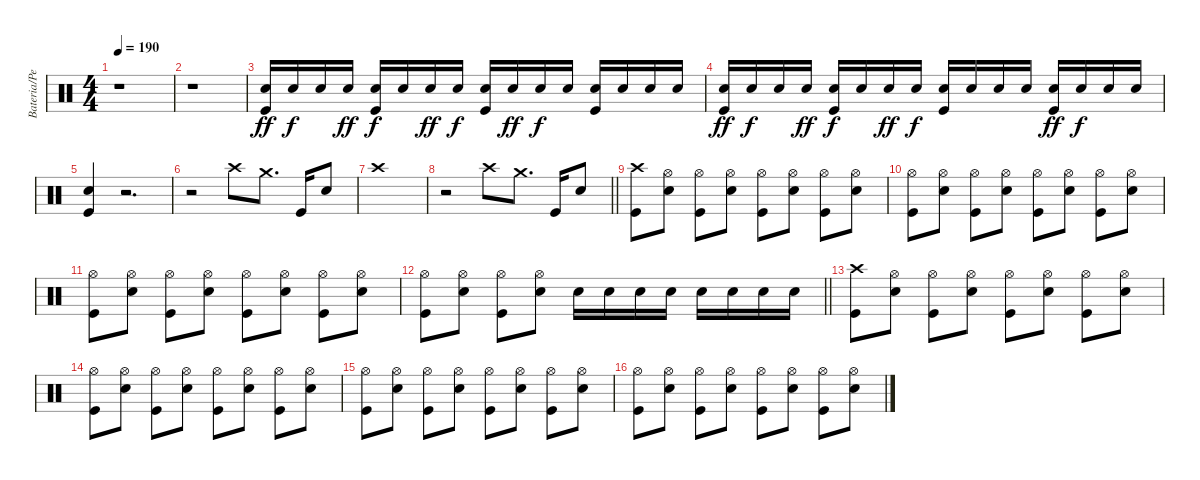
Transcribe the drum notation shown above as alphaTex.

\track ("Bateria/Percussion" "Bateria/Pe") {instrument percussion}
\staff {score}
\articulation defaults
\ts (4 4)
\section ("" "")
\tempo 190
\clef neutral
\ks c
r.1{dy ff} |
r.1 |
("Snare (hit) 2" "Kick (hit)").16 "Snare (hit) 2".16{dy f} "Snare (hit) 2".16 "Snare (hit) 2".16{dy ff} ("Snare (hit) 2" "Kick (hit)").16{dy f} "Snare (hit) 2".16 "Snare (hit) 2".16{dy ff} "Snare (hit) 2".16{dy f} ("Snare (hit) 2" "Kick (hit)").16 "Snare (hit) 2".16{dy ff} "Snare (hit) 2".16{dy f} "Snare (hit) 2".16 ("Snare (hit) 2" "Kick (hit)").16 "Snare (hit) 2".16 "Snare (hit) 2".16 "Snare (hit) 2".16 |
("Snare (hit) 2" "Kick (hit)").16{dy ff} "Snare (hit) 2".16{dy f} "Snare (hit) 2".16 "Snare (hit) 2".16{dy ff} ("Snare (hit) 2" "Kick (hit)").16{dy f} "Snare (hit) 2".16 "Snare (hit) 2".16{dy ff} "Snare (hit) 2".16{dy f} ("Snare (hit) 2" "Kick (hit)").16 "Snare (hit) 2".16 "Snare (hit) 2".16 "Snare (hit) 2".16 ("Snare (hit) 2" "Kick (hit)").16{dy ff} "Snare (hit) 2".16{dy f} "Snare (hit) 2".16 "Snare (hit) 2".16 |
("Snare (hit) 2" "Kick (hit)").4 r.2{d} |
r.2 "Crash high (hit)".8 "Crash medium (hit)".8{d} "Kick (hit)".16 "Snare (hit) 2".8 |
"Crash high (hit)".1 |
\barLineRight lightlight
r.2 "Crash high (hit)".8 "Crash medium (hit)".8{d} "Kick (hit)".16 "Snare (hit) 2".8 |
\section ("" "")
("Crash high (hit)" "Kick (hit)").8 ("Hi-Hat (open)" "Snare (hit) 2").8 ("Hi-Hat (open)" "Kick (hit)").8 ("Hi-Hat (open)" "Snare (hit) 2").8 ("Hi-Hat (open)" "Kick (hit)").8 ("Hi-Hat (open)" "Snare (hit) 2").8 ("Hi-Hat (open)" "Kick (hit)").8 ("Hi-Hat (open)" "Snare (hit) 2").8 |
("Hi-Hat (open)" "Kick (hit)").8 ("Hi-Hat (open)" "Snare (hit) 2").8 ("Hi-Hat (open)" "Kick (hit)").8 ("Hi-Hat (open)" "Snare (hit) 2").8 ("Hi-Hat (open)" "Kick (hit)").8 ("Hi-Hat (open)" "Snare (hit) 2").8 ("Hi-Hat (open)" "Kick (hit)").8 ("Hi-Hat (open)" "Snare (hit) 2").8 |
("Hi-Hat (open)" "Kick (hit)").8 ("Hi-Hat (open)" "Snare (hit) 2").8 ("Hi-Hat (open)" "Kick (hit)").8 ("Hi-Hat (open)" "Snare (hit) 2").8 ("Hi-Hat (open)" "Kick (hit)").8 ("Hi-Hat (open)" "Snare (hit) 2").8 ("Hi-Hat (open)" "Kick (hit)").8 ("Hi-Hat (open)" "Snare (hit) 2").8 |
\barLineRight lightlight
("Hi-Hat (open)" "Kick (hit)").8 ("Hi-Hat (open)" "Snare (hit) 2").8 ("Hi-Hat (open)" "Kick (hit)").8 ("Hi-Hat (open)" "Snare (hit) 2").8 "Snare (hit) 2".16 "Snare (hit) 2".16 "Snare (hit) 2".16 "Snare (hit) 2".16 "Snare (hit) 2".16 "Snare (hit) 2".16 "Snare (hit) 2".16 "Snare (hit) 2".16 |
\section ("" "")
("Crash high (hit)" "Kick (hit)").8 ("Hi-Hat (open)" "Snare (hit) 2").8 ("Hi-Hat (open)" "Kick (hit)").8 ("Hi-Hat (open)" "Snare (hit) 2").8 ("Hi-Hat (open)" "Kick (hit)").8 ("Hi-Hat (open)" "Snare (hit) 2").8 ("Hi-Hat (open)" "Kick (hit)").8 ("Hi-Hat (open)" "Snare (hit) 2").8 |
("Hi-Hat (open)" "Kick (hit)").8 ("Hi-Hat (open)" "Snare (hit) 2").8 ("Hi-Hat (open)" "Kick (hit)").8 ("Hi-Hat (open)" "Snare (hit) 2").8 ("Hi-Hat (open)" "Kick (hit)").8 ("Hi-Hat (open)" "Snare (hit) 2").8 ("Hi-Hat (open)" "Kick (hit)").8 ("Hi-Hat (open)" "Snare (hit) 2").8 |
("Hi-Hat (open)" "Kick (hit)").8 ("Hi-Hat (open)" "Snare (hit) 2").8 ("Hi-Hat (open)" "Kick (hit)").8 ("Hi-Hat (open)" "Snare (hit) 2").8 ("Hi-Hat (open)" "Kick (hit)").8 ("Hi-Hat (open)" "Snare (hit) 2").8 ("Hi-Hat (open)" "Kick (hit)").8 ("Hi-Hat (open)" "Snare (hit) 2").8 |
("Hi-Hat (open)" "Kick (hit)").8 ("Hi-Hat (open)" "Snare (hit) 2").8 ("Hi-Hat (open)" "Kick (hit)").8 ("Hi-Hat (open)" "Snare (hit) 2").8 ("Hi-Hat (open)" "Kick (hit)").8 ("Hi-Hat (open)" "Snare (hit) 2").8 ("Hi-Hat (open)" "Kick (hit)").8 ("Hi-Hat (open)" "Snare (hit) 2").8
